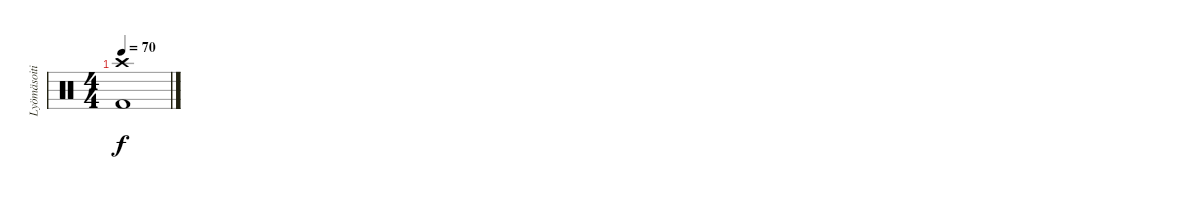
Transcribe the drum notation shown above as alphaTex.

\track ("Lyömäsoitin" "Lyömäsoiti") {instrument percussion}
\staff {score}
\articulation defaults
\ts (4 4)
\tempo 70
\clef neutral
\ks c
("Crash high (hit)" "Kick (hit) 2").1{dy f}
